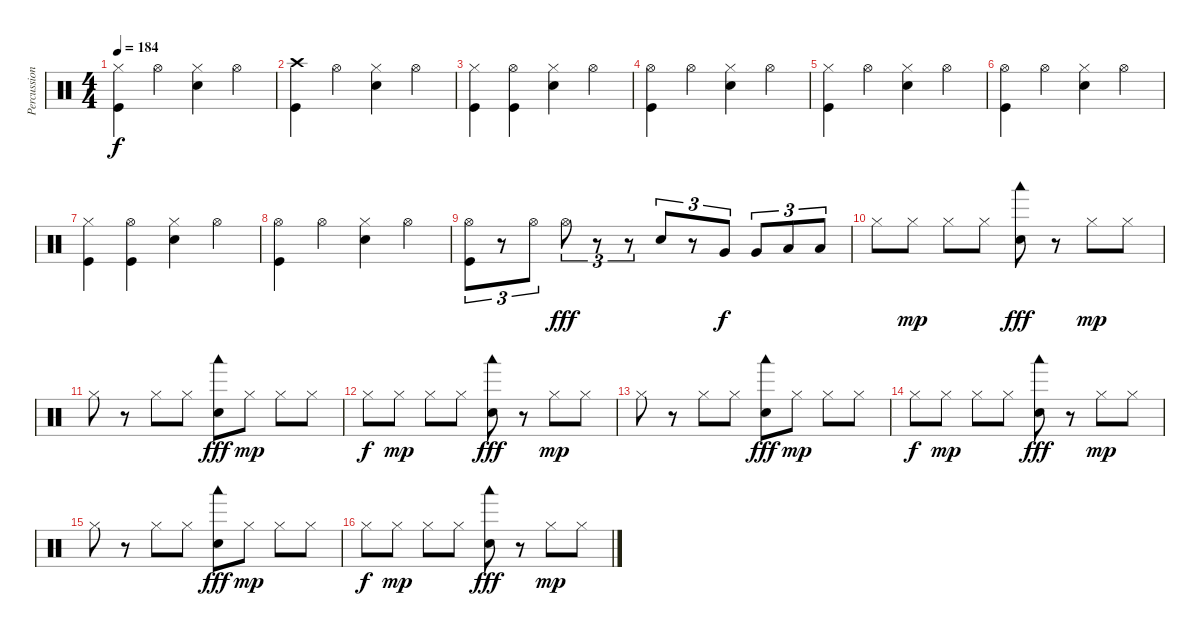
\track ("Percussion" "Percussion") {instrument percussion}
\staff {score}
\articulation defaults
\ts (4 4)
\tempo 184
\clef neutral
\ks c
("Hi-Hat (closed)" "Kick (hit)").4{dy f} "Hi-Hat (open)".4 ("Hi-Hat (closed)" "Electric Snare (hit)").4 "Hi-Hat (open)".4 |
("Crash high (hit)" "Kick (hit)").4 "Hi-Hat (open)".4 ("Hi-Hat (closed)" "Electric Snare (hit)").4 "Hi-Hat (open)".4 |
("Hi-Hat (closed)" "Kick (hit)").4 ("Hi-Hat (open)" "Kick (hit)").4 ("Hi-Hat (closed)" "Electric Snare (hit)").4 "Hi-Hat (open)".4 |
("Hi-Hat (open)" "Kick (hit)").4 "Hi-Hat (open)".4 ("Hi-Hat (closed)" "Electric Snare (hit)").4 "Hi-Hat (open)".4 |
("Hi-Hat (closed)" "Kick (hit)").4 "Hi-Hat (open)".4 ("Hi-Hat (closed)" "Electric Snare (hit)").4 "Hi-Hat (open)".4 |
("Hi-Hat (open)" "Kick (hit)").4 "Hi-Hat (open)".4 ("Hi-Hat (closed)" "Electric Snare (hit)").4 "Hi-Hat (open)".4 |
("Hi-Hat (closed)" "Kick (hit)").4 ("Hi-Hat (open)" "Kick (hit)").4 ("Hi-Hat (closed)" "Electric Snare (hit)").4 "Hi-Hat (open)".4 |
("Hi-Hat (open)" "Kick (hit)").4 "Hi-Hat (open)".4 ("Hi-Hat (closed)" "Electric Snare (hit)").4 "Hi-Hat (open)".4 |
("Hi-Hat (open)" "Kick (hit)").8{tu (3 2)} r.8{tu (3 2)} "Hi-Hat (open)".8{tu (3 2)} "Hi-Hat (open)".8{tu (3 2) dy fff} r.8{tu (3 2)} r.8{tu (3 2)} "Electric Snare (hit)".8{tu (3 2)} r.8{tu (3 2)} "Very Low Tom (hit)".8{tu (3 2) dy f} "Very Low Tom (hit)".8{tu (3 2)} "Low Floor Tom (hit)".8{tu (3 2)} "Low Floor Tom (hit)".8{tu (3 2)} |
"Hi-Hat (closed)".8 "Hi-Hat (closed)".8{dy mp} "Hi-Hat (closed)".8 "Hi-Hat (closed)".8 ("Hand Clap (hit)" "Woodblock low (hit)").8{dy fff} r.8 "Hi-Hat (closed)".8{dy mp} "Hi-Hat (closed)".8 |
"Hi-Hat (closed)".8 r.8 "Hi-Hat (closed)".8 "Hi-Hat (closed)".8 ("Hand Clap (hit)" "Woodblock low (hit)").8{dy fff} "Hi-Hat (closed)".8{dy mp} "Hi-Hat (closed)".8 "Hi-Hat (closed)".8 |
"Hi-Hat (closed)".8{dy f} "Hi-Hat (closed)".8{dy mp} "Hi-Hat (closed)".8 "Hi-Hat (closed)".8 ("Hand Clap (hit)" "Woodblock low (hit)").8{dy fff} r.8 "Hi-Hat (closed)".8{dy mp} "Hi-Hat (closed)".8 |
"Hi-Hat (closed)".8 r.8 "Hi-Hat (closed)".8 "Hi-Hat (closed)".8 ("Hand Clap (hit)" "Woodblock low (hit)").8{dy fff} "Hi-Hat (closed)".8{dy mp} "Hi-Hat (closed)".8 "Hi-Hat (closed)".8 |
"Hi-Hat (closed)".8{dy f} "Hi-Hat (closed)".8{dy mp} "Hi-Hat (closed)".8 "Hi-Hat (closed)".8 ("Hand Clap (hit)" "Woodblock low (hit)").8{dy fff} r.8 "Hi-Hat (closed)".8{dy mp} "Hi-Hat (closed)".8 |
"Hi-Hat (closed)".8 r.8 "Hi-Hat (closed)".8 "Hi-Hat (closed)".8 ("Hand Clap (hit)" "Woodblock low (hit)").8{dy fff} "Hi-Hat (closed)".8{dy mp} "Hi-Hat (closed)".8 "Hi-Hat (closed)".8 |
"Hi-Hat (closed)".8{dy f} "Hi-Hat (closed)".8{dy mp} "Hi-Hat (closed)".8 "Hi-Hat (closed)".8 ("Hand Clap (hit)" "Woodblock low (hit)").8{dy fff} r.8 "Hi-Hat (closed)".8{dy mp} "Hi-Hat (closed)".8
